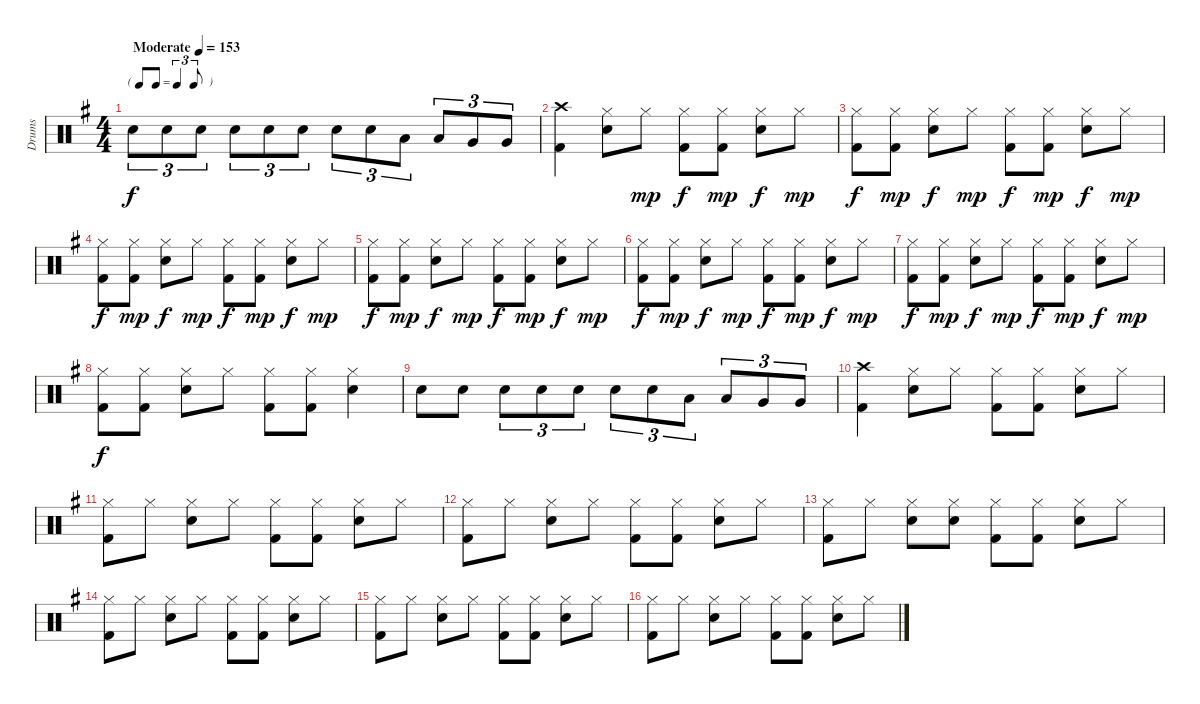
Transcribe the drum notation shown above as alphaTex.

\track ("Drums" "Drums") {instrument percussion}
\staff {score}
\articulation defaults
\ts (4 4)
\tf triplet8th
\tempo (153 "Moderate")
\clef neutral
\ks g "Electric Snare (hit)".8{tu (3 2) dy f} "Electric Snare (hit)".8{tu (3 2)} "Electric Snare (hit)".8{tu (3 2)} "Electric Snare (hit)".8{tu (3 2)} "Electric Snare (hit)".8{tu (3 2)} "Electric Snare (hit)".8{tu (3 2)} "Electric Snare (hit)".8{tu (3 2)} "Electric Snare (hit)".8{tu (3 2)} "Low Tom (hit)".8{tu (3 2)} "Low Tom (hit)".8{tu (3 2)} "Very Low Tom (hit)".8{tu (3 2)} "Very Low Tom (hit)".8{tu (3 2)}
|
("Crash high (hit)" "Kick (hit) 2").4 ("Hi-Hat (closed)" "Electric Snare (hit)").8 "Hi-Hat (closed)".8{dy mp} ("Hi-Hat (closed)" "Kick (hit) 2").8{dy f} ("Hi-Hat (closed)" "Kick (hit) 2").8{dy mp} ("Hi-Hat (closed)" "Electric Snare (hit)").8{dy f} "Hi-Hat (closed)".8{dy mp} |
("Hi-Hat (closed)" "Kick (hit) 2").8{dy f} ("Hi-Hat (closed)" "Kick (hit) 2").8{dy mp} ("Hi-Hat (closed)" "Electric Snare (hit)").8{dy f} "Hi-Hat (closed)".8{dy mp} ("Hi-Hat (closed)" "Kick (hit) 2").8{dy f} ("Hi-Hat (closed)" "Kick (hit) 2").8{dy mp} ("Hi-Hat (closed)" "Electric Snare (hit)").8{dy f} "Hi-Hat (closed)".8{dy mp} |
("Hi-Hat (closed)" "Kick (hit) 2").8{dy f} ("Hi-Hat (closed)" "Kick (hit) 2").8{dy mp} ("Hi-Hat (closed)" "Electric Snare (hit)").8{dy f} "Hi-Hat (closed)".8{dy mp} ("Hi-Hat (closed)" "Kick (hit) 2").8{dy f} ("Hi-Hat (closed)" "Kick (hit) 2").8{dy mp} ("Hi-Hat (closed)" "Electric Snare (hit)").8{dy f} "Hi-Hat (closed)".8{dy mp} |
("Hi-Hat (closed)" "Kick (hit) 2").8{dy f} ("Hi-Hat (closed)" "Kick (hit) 2").8{dy mp} ("Hi-Hat (closed)" "Electric Snare (hit)").8{dy f} "Hi-Hat (closed)".8{dy mp} ("Hi-Hat (closed)" "Kick (hit) 2").8{dy f} ("Hi-Hat (closed)" "Kick (hit) 2").8{dy mp} ("Hi-Hat (closed)" "Electric Snare (hit)").8{dy f} "Hi-Hat (closed)".8{dy mp} |
("Hi-Hat (closed)" "Kick (hit) 2").8{dy f} ("Hi-Hat (closed)" "Kick (hit) 2").8{dy mp} ("Hi-Hat (closed)" "Electric Snare (hit)").8{dy f} "Hi-Hat (closed)".8{dy mp} ("Hi-Hat (closed)" "Kick (hit) 2").8{dy f} ("Hi-Hat (closed)" "Kick (hit) 2").8{dy mp} ("Hi-Hat (closed)" "Electric Snare (hit)").8{dy f} "Hi-Hat (closed)".8{dy mp} |
("Hi-Hat (closed)" "Kick (hit) 2").8{dy f} ("Hi-Hat (closed)" "Kick (hit) 2").8{dy mp} ("Hi-Hat (closed)" "Electric Snare (hit)").8{dy f} "Hi-Hat (closed)".8{dy mp} ("Hi-Hat (closed)" "Kick (hit) 2").8{dy f} ("Hi-Hat (closed)" "Kick (hit) 2").8{dy mp} ("Hi-Hat (closed)" "Electric Snare (hit)").8{dy f} "Hi-Hat (closed)".8{dy mp} |
("Hi-Hat (closed)" "Kick (hit) 2").8{dy f} ("Hi-Hat (closed)" "Kick (hit) 2").8 ("Hi-Hat (closed)" "Electric Snare (hit)").8 "Hi-Hat (closed)".8 ("Hi-Hat (closed)" "Kick (hit) 2").8 ("Hi-Hat (closed)" "Kick (hit) 2").8 ("Hi-Hat (closed)" "Electric Snare (hit)").4 |
"Electric Snare (hit)".8 "Electric Snare (hit)".8 "Electric Snare (hit)".8{tu (3 2)} "Electric Snare (hit)".8{tu (3 2)} "Electric Snare (hit)".8{tu (3 2)} "Electric Snare (hit)".8{tu (3 2)} "Electric Snare (hit)".8{tu (3 2)} "Low Tom (hit)".8{tu (3 2)} "Low Tom (hit)".8{tu (3 2)} "Very Low Tom (hit)".8{tu (3 2)} "Very Low Tom (hit)".8{tu (3 2)} |
("Crash high (hit)" "Kick (hit) 2").4 ("Hi-Hat (closed)" "Electric Snare (hit)").8 "Hi-Hat (closed)".8 ("Hi-Hat (closed)" "Kick (hit) 2").8 ("Hi-Hat (closed)" "Kick (hit) 2").8 ("Hi-Hat (closed)" "Electric Snare (hit)").8 "Hi-Hat (closed)".8 |
("Hi-Hat (closed)" "Kick (hit) 2").8 "Hi-Hat (closed)".8 ("Hi-Hat (closed)" "Electric Snare (hit)").8 "Hi-Hat (closed)".8 ("Hi-Hat (closed)" "Kick (hit) 2").8 ("Hi-Hat (closed)" "Kick (hit) 2").8 ("Hi-Hat (closed)" "Electric Snare (hit)").8 "Hi-Hat (closed)".8 |
("Hi-Hat (closed)" "Kick (hit) 2").8 "Hi-Hat (closed)".8 ("Hi-Hat (closed)" "Electric Snare (hit)").8 "Hi-Hat (closed)".8 ("Hi-Hat (closed)" "Kick (hit) 2").8 ("Hi-Hat (closed)" "Kick (hit) 2").8 ("Hi-Hat (closed)" "Electric Snare (hit)").8 "Hi-Hat (closed)".8 |
("Hi-Hat (closed)" "Kick (hit) 2").8 "Hi-Hat (closed)".8 ("Hi-Hat (closed)" "Electric Snare (hit)").8 ("Hi-Hat (closed)" "Electric Snare (hit)").8 ("Hi-Hat (closed)" "Kick (hit) 2").8 ("Hi-Hat (closed)" "Kick (hit) 2").8 ("Hi-Hat (closed)" "Electric Snare (hit)").8 "Hi-Hat (closed)".8 |
("Hi-Hat (closed)" "Kick (hit) 2").8 "Hi-Hat (closed)".8 ("Hi-Hat (closed)" "Electric Snare (hit)").8 "Hi-Hat (closed)".8 ("Hi-Hat (closed)" "Kick (hit) 2").8 ("Hi-Hat (closed)" "Kick (hit) 2").8 ("Hi-Hat (closed)" "Electric Snare (hit)").8 "Hi-Hat (closed)".8 |
("Hi-Hat (closed)" "Kick (hit) 2").8 "Hi-Hat (closed)".8 ("Hi-Hat (closed)" "Electric Snare (hit)").8 "Hi-Hat (closed)".8 ("Hi-Hat (closed)" "Kick (hit) 2").8 ("Hi-Hat (closed)" "Kick (hit) 2").8 ("Hi-Hat (closed)" "Electric Snare (hit)").8 "Hi-Hat (closed)".8 |
("Hi-Hat (closed)" "Kick (hit) 2").8 "Hi-Hat (closed)".8 ("Hi-Hat (closed)" "Electric Snare (hit)").8 "Hi-Hat (closed)".8 ("Hi-Hat (closed)" "Kick (hit) 2").8 ("Hi-Hat (closed)" "Kick (hit) 2").8 ("Hi-Hat (closed)" "Electric Snare (hit)").8 "Hi-Hat (closed)".8
